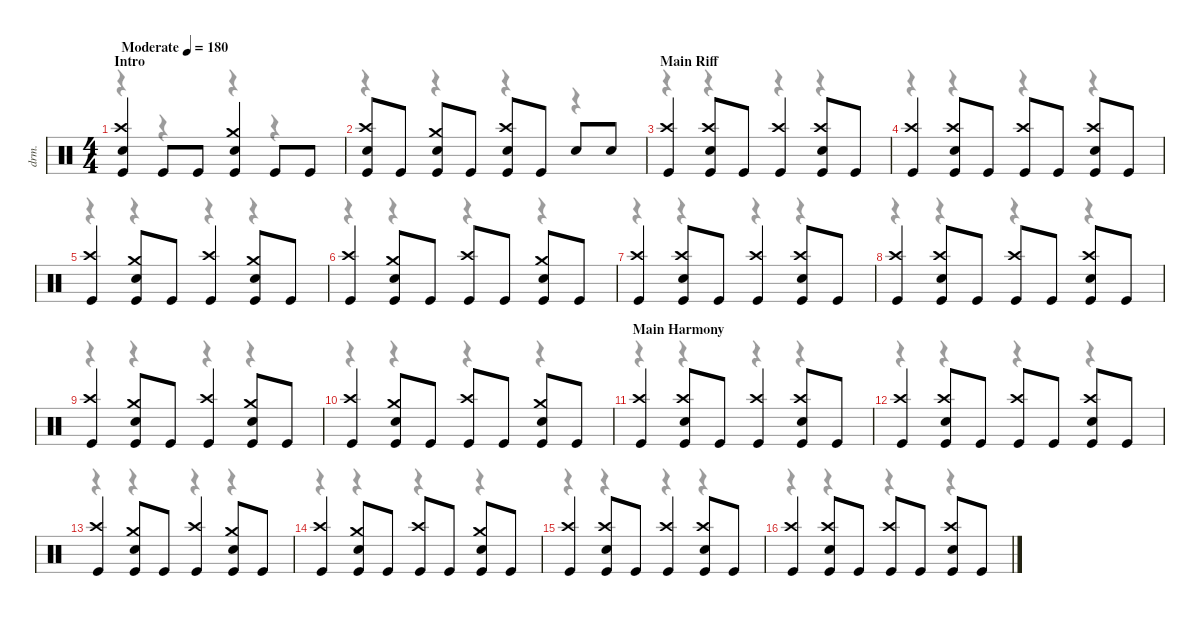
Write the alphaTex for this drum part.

\defaultSystemsLayout 4
\hideDynamics
\bracketExtendMode nobrackets
\track ("Drums" "drm.") {instrument percussion}
\staff {score}
\articulation defaults
\voice
\ts (4 4)
\beaming (8 2 2 2 2)
\section ("" "Intro")
\tempo (180 "Moderate")
\clef neutral
\ks c
("Crash high (hit)" "Snare (hit) 2" "Kick (hit)").4{dy f} "Kick (hit)".8 "Kick (hit)".8 ("Crash medium (hit)" "Snare (hit) 2" "Kick (hit)").4 "Kick (hit)".8 "Kick (hit)".8 |
("Crash high (hit)" "Snare (hit) 2" "Kick (hit)").8 "Kick (hit)".8 ("Crash medium (hit)" "Snare (hit) 2" "Kick (hit)").8 "Kick (hit)".8 ("Crash high (hit)" "Snare (hit) 2" "Kick (hit)").8 "Kick (hit)".8 "Snare (hit) 2".8 "Snare (hit) 2".8 |
\section ("" "Main Riff")
("Crash high (hit)" "Kick (hit)").4 ("Crash high (hit)" "Snare (hit) 2" "Kick (hit)").8 "Kick (hit)".8 ("Crash high (hit)" "Kick (hit)").4 ("Crash high (hit)" "Snare (hit) 2" "Kick (hit)").8 "Kick (hit)".8 |
("Crash high (hit)" "Kick (hit)").4 ("Crash high (hit)" "Snare (hit) 2" "Kick (hit)").8 "Kick (hit)".8 ("Crash high (hit)" "Kick (hit)").8 "Kick (hit)".8 ("Crash high (hit)" "Snare (hit) 2" "Kick (hit)").8 "Kick (hit)".8 |
("Crash high (hit)" "Kick (hit)").4 ("Crash medium (hit)" "Snare (hit) 2" "Kick (hit)").8 "Kick (hit)".8 ("Crash high (hit)" "Kick (hit)").4 ("Crash medium (hit)" "Snare (hit) 2" "Kick (hit)").8 "Kick (hit)".8 |
("Crash high (hit)" "Kick (hit)").4 ("Crash medium (hit)" "Snare (hit) 2" "Kick (hit)").8 "Kick (hit)".8 ("Crash high (hit)" "Kick (hit)").8 "Kick (hit)".8 ("Crash medium (hit)" "Snare (hit) 2" "Kick (hit)").8 "Kick (hit)".8 |
("Crash high (hit)" "Kick (hit)").4 ("Crash high (hit)" "Snare (hit) 2" "Kick (hit)").8 "Kick (hit)".8 ("Crash high (hit)" "Kick (hit)").4 ("Crash high (hit)" "Snare (hit) 2" "Kick (hit)").8 "Kick (hit)".8 |
("Crash high (hit)" "Kick (hit)").4 ("Crash high (hit)" "Snare (hit) 2" "Kick (hit)").8 "Kick (hit)".8 ("Crash high (hit)" "Kick (hit)").8 "Kick (hit)".8 ("Crash high (hit)" "Snare (hit) 2" "Kick (hit)").8 "Kick (hit)".8 |
("Crash high (hit)" "Kick (hit)").4 ("Crash medium (hit)" "Snare (hit) 2" "Kick (hit)").8 "Kick (hit)".8 ("Crash high (hit)" "Kick (hit)").4 ("Crash medium (hit)" "Snare (hit) 2" "Kick (hit)").8 "Kick (hit)".8 |
("Crash high (hit)" "Kick (hit)").4 ("Crash medium (hit)" "Snare (hit) 2" "Kick (hit)").8 "Kick (hit)".8 ("Crash high (hit)" "Kick (hit)").8 "Kick (hit)".8 ("Crash medium (hit)" "Snare (hit) 2" "Kick (hit)").8 "Kick (hit)".8 |
\section ("" "Main Harmony")
("Crash high (hit)" "Kick (hit)").4 ("Crash high (hit)" "Snare (hit) 2" "Kick (hit)").8 "Kick (hit)".8 ("Crash high (hit)" "Kick (hit)").4 ("Crash high (hit)" "Snare (hit) 2" "Kick (hit)").8 "Kick (hit)".8 |
("Crash high (hit)" "Kick (hit)").4 ("Crash high (hit)" "Snare (hit) 2" "Kick (hit)").8 "Kick (hit)".8 ("Crash high (hit)" "Kick (hit)").8 "Kick (hit)".8 ("Crash high (hit)" "Snare (hit) 2" "Kick (hit)").8 "Kick (hit)".8 |
("Crash high (hit)" "Kick (hit)").4 ("Crash medium (hit)" "Snare (hit) 2" "Kick (hit)").8 "Kick (hit)".8 ("Crash high (hit)" "Kick (hit)").4 ("Crash medium (hit)" "Snare (hit) 2" "Kick (hit)").8 "Kick (hit)".8 |
("Crash high (hit)" "Kick (hit)").4 ("Crash medium (hit)" "Snare (hit) 2" "Kick (hit)").8 "Kick (hit)".8 ("Crash high (hit)" "Kick (hit)").8 "Kick (hit)".8 ("Crash medium (hit)" "Snare (hit) 2" "Kick (hit)").8 "Kick (hit)".8 |
("Crash high (hit)" "Kick (hit)").4 ("Crash high (hit)" "Snare (hit) 2" "Kick (hit)").8 "Kick (hit)".8 ("Crash high (hit)" "Kick (hit)").4 ("Crash high (hit)" "Snare (hit) 2" "Kick (hit)").8 "Kick (hit)".8 |
("Crash high (hit)" "Kick (hit)").4 ("Crash high (hit)" "Snare (hit) 2" "Kick (hit)").8 "Kick (hit)".8 ("Crash high (hit)" "Kick (hit)").8 "Kick (hit)".8 ("Crash high (hit)" "Snare (hit) 2" "Kick (hit)").8 "Kick (hit)".8
\voice
\clef neutral
\ottava regular
\simile none
\ks c
r.4{dy mf} r.4 r.4 r.4 |
r.4 r.4 r.4 r.4 |
r.4 r.4 r.4 r.4 |
r.4 r.4 r.4 r.4 |
r.4 r.4 r.4 r.4 |
r.4 r.4 r.4 r.4 |
r.4 r.4 r.4 r.4 |
r.4 r.4 r.4 r.4 |
r.4 r.4 r.4 r.4 |
r.4 r.4 r.4 r.4 |
r.4 r.4 r.4 r.4 |
r.4 r.4 r.4 r.4 |
r.4 r.4 r.4 r.4 |
r.4 r.4 r.4 r.4 |
r.4 r.4 r.4 r.4 |
r.4 r.4 r.4 r.4
